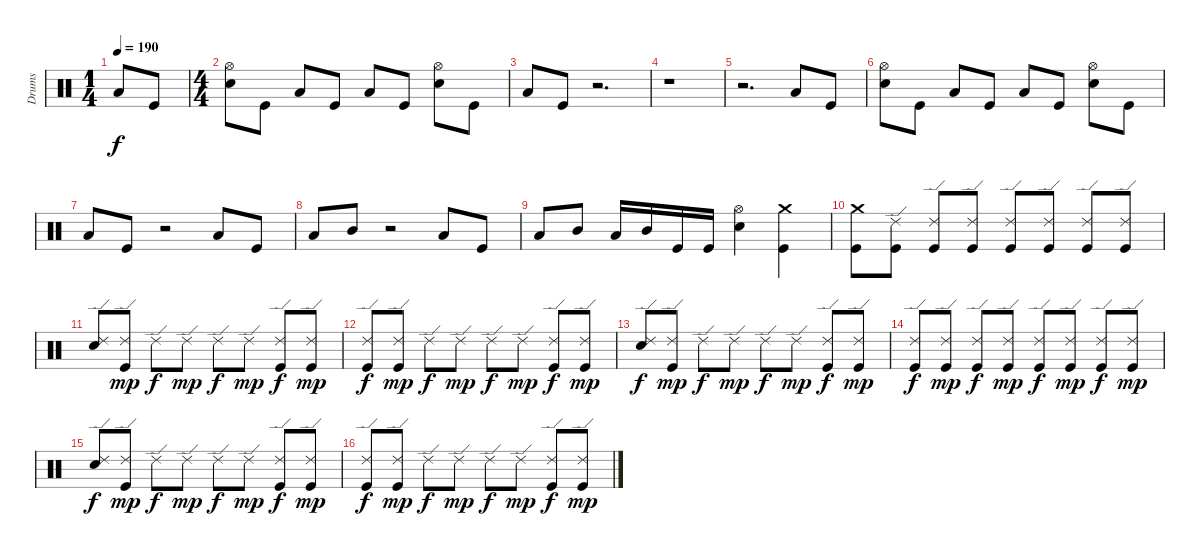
\track ("Drums" "Drums") {instrument percussion}
\staff {score}
\articulation defaults
\ts (1 4)
\tempo 190
\clef neutral
\ks c "Low Tom (hit)".8{dy f} "Kick (hit)".8
|
\ts (4 4)
("Hi-Hat (open)" "Electric Snare (hit)").8 "Kick (hit)".8 "Low Tom (hit)".8 "Kick (hit)".8 "Low Tom (hit)".8 "Kick (hit)".8 ("Hi-Hat (open)" "Electric Snare (hit)").8 "Kick (hit)".8 |
"Low Tom (hit)".8 "Kick (hit)".8 r.2{d} |
r.1 |
r.2{d} "Low Tom (hit)".8 "Kick (hit)".8 |
("Hi-Hat (open)" "Electric Snare (hit)").8 "Kick (hit)".8 "Low Tom (hit)".8 "Kick (hit)".8 "Low Tom (hit)".8 "Kick (hit)".8 ("Hi-Hat (open)" "Electric Snare (hit)").8 "Kick (hit)".8 |
"Low Tom (hit)".8 "Kick (hit)".8 r.2 "Low Tom (hit)".8 "Kick (hit)".8 |
"Low Tom (hit)".8 "Mid Tom (hit)".8 r.2 "Low Tom (hit)".8 "Kick (hit)".8 |
"Low Tom (hit)".8 "Mid Tom (hit)".8 "Low Tom (hit)".16 "Mid Tom (hit)".16 "Kick (hit)".16 "Kick (hit)".16 ("Hi-Hat (open)" "Electric Snare (hit)").4 ("Crash medium (hit)" "Kick (hit)").4 |
("Crash medium (hit)" "Kick (hit)").8 ("Ride (edge) 2" "Kick (hit)").8 ("Ride (edge) 2" "Kick (hit)").8 ("Ride (edge) 2" "Kick (hit)").8 ("Ride (edge) 2" "Kick (hit)").8 ("Ride (edge) 2" "Kick (hit)").8 ("Ride (edge) 2" "Kick (hit)").8 ("Ride (edge) 2" "Kick (hit)").8 |
("Ride (edge) 2" "Electric Snare (hit)").8 ("Ride (edge) 2" "Kick (hit)").8{dy mp} "Ride (edge) 2".8{dy f} "Ride (edge) 2".8{dy mp} "Ride (edge) 2".8{dy f} "Ride (edge) 2".8{dy mp} ("Ride (edge) 2" "Kick (hit)").8{dy f} ("Ride (edge) 2" "Kick (hit)").8{dy mp} |
("Ride (edge) 2" "Kick (hit)").8{dy f} ("Ride (edge) 2" "Kick (hit)").8{dy mp} "Ride (edge) 2".8{dy f} "Ride (edge) 2".8{dy mp} "Ride (edge) 2".8{dy f} "Ride (edge) 2".8{dy mp} ("Ride (edge) 2" "Kick (hit)").8{dy f} ("Ride (edge) 2" "Kick (hit)").8{dy mp} |
("Ride (edge) 2" "Electric Snare (hit)").8{dy f} ("Ride (edge) 2" "Kick (hit)").8{dy mp} "Ride (edge) 2".8{dy f} "Ride (edge) 2".8{dy mp} "Ride (edge) 2".8{dy f} "Ride (edge) 2".8{dy mp} ("Ride (edge) 2" "Kick (hit)").8{dy f} ("Ride (edge) 2" "Kick (hit)").8{dy mp} |
("Ride (edge) 2" "Kick (hit)").8{dy f} ("Ride (edge) 2" "Kick (hit)").8{dy mp} ("Ride (edge) 2" "Kick (hit)").8{dy f} ("Ride (edge) 2" "Kick (hit)").8{dy mp} ("Ride (edge) 2" "Kick (hit)").8{dy f} ("Ride (edge) 2" "Kick (hit)").8{dy mp} ("Ride (edge) 2" "Kick (hit)").8{dy f} ("Ride (edge) 2" "Kick (hit)").8{dy mp} |
("Ride (edge) 2" "Electric Snare (hit)").8{dy f} ("Ride (edge) 2" "Kick (hit)").8{dy mp} "Ride (edge) 2".8{dy f} "Ride (edge) 2".8{dy mp} "Ride (edge) 2".8{dy f} "Ride (edge) 2".8{dy mp} ("Ride (edge) 2" "Kick (hit)").8{dy f} ("Ride (edge) 2" "Kick (hit)").8{dy mp} |
("Ride (edge) 2" "Kick (hit)").8{dy f} ("Ride (edge) 2" "Kick (hit)").8{dy mp} "Ride (edge) 2".8{dy f} "Ride (edge) 2".8{dy mp} "Ride (edge) 2".8{dy f} "Ride (edge) 2".8{dy mp} ("Ride (edge) 2" "Kick (hit)").8{dy f} ("Ride (edge) 2" "Kick (hit)").8{dy mp}
